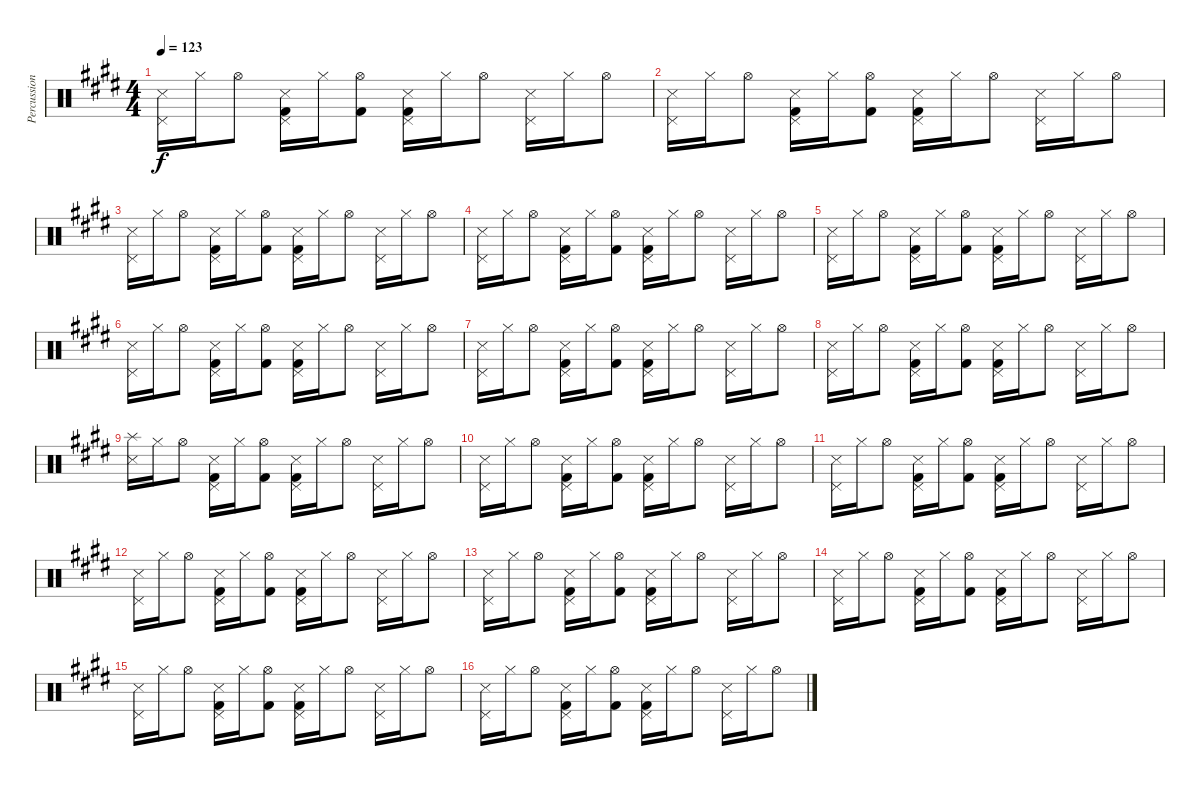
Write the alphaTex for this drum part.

\track ("Percussioni" "Percussion") {instrument percussion}
\staff {score}
\articulation defaults
\ts (4 4)
\tempo 123
\clef neutral
\ks e
("Pedal Hi-Hat (hit)" "Metronome (hit)").16{dy f} "Hi-Hat (closed)".16 "Hi-Hat (open)".8 ("Pedal Hi-Hat (hit)" "Metronome (hit)" "Kick (hit) 2").16 "Hi-Hat (closed)".16 ("Hi-Hat (open)" "Kick (hit) 2").8 ("Pedal Hi-Hat (hit)" "Metronome (hit)" "Kick (hit) 2").16 "Hi-Hat (closed)".16 "Hi-Hat (open)".8 ("Pedal Hi-Hat (hit)" "Metronome (hit)").16 "Hi-Hat (closed)".16 "Hi-Hat (open)".8 |
("Pedal Hi-Hat (hit)" "Metronome (hit)").16 "Hi-Hat (closed)".16 "Hi-Hat (open)".8 ("Pedal Hi-Hat (hit)" "Metronome (hit)" "Kick (hit) 2").16 "Hi-Hat (closed)".16 ("Hi-Hat (open)" "Kick (hit) 2").8 ("Pedal Hi-Hat (hit)" "Metronome (hit)" "Kick (hit) 2").16 "Hi-Hat (closed)".16 "Hi-Hat (open)".8 ("Pedal Hi-Hat (hit)" "Metronome (hit)").16 "Hi-Hat (closed)".16 "Hi-Hat (open)".8 |
("Pedal Hi-Hat (hit)" "Metronome (hit)").16 "Hi-Hat (closed)".16 "Hi-Hat (open)".8 ("Pedal Hi-Hat (hit)" "Metronome (hit)" "Kick (hit) 2").16 "Hi-Hat (closed)".16 ("Hi-Hat (open)" "Kick (hit) 2").8 ("Pedal Hi-Hat (hit)" "Metronome (hit)" "Kick (hit) 2").16 "Hi-Hat (closed)".16 "Hi-Hat (open)".8 ("Pedal Hi-Hat (hit)" "Metronome (hit)").16 "Hi-Hat (closed)".16 "Hi-Hat (open)".8 |
("Pedal Hi-Hat (hit)" "Metronome (hit)").16 "Hi-Hat (closed)".16 "Hi-Hat (open)".8 ("Pedal Hi-Hat (hit)" "Metronome (hit)" "Kick (hit) 2").16 "Hi-Hat (closed)".16 ("Hi-Hat (open)" "Kick (hit) 2").8 ("Pedal Hi-Hat (hit)" "Metronome (hit)" "Kick (hit) 2").16 "Hi-Hat (closed)".16 "Hi-Hat (open)".8 ("Pedal Hi-Hat (hit)" "Metronome (hit)").16 "Hi-Hat (closed)".16 "Hi-Hat (open)".8 |
("Pedal Hi-Hat (hit)" "Metronome (hit)").16 "Hi-Hat (closed)".16 "Hi-Hat (open)".8 ("Pedal Hi-Hat (hit)" "Metronome (hit)" "Kick (hit) 2").16 "Hi-Hat (closed)".16 ("Hi-Hat (open)" "Kick (hit) 2").8 ("Pedal Hi-Hat (hit)" "Metronome (hit)" "Kick (hit) 2").16 "Hi-Hat (closed)".16 "Hi-Hat (open)".8 ("Pedal Hi-Hat (hit)" "Metronome (hit)").16 "Hi-Hat (closed)".16 "Hi-Hat (open)".8 |
("Pedal Hi-Hat (hit)" "Metronome (hit)").16 "Hi-Hat (closed)".16 "Hi-Hat (open)".8 ("Pedal Hi-Hat (hit)" "Metronome (hit)" "Kick (hit) 2").16 "Hi-Hat (closed)".16 ("Hi-Hat (open)" "Kick (hit) 2").8 ("Pedal Hi-Hat (hit)" "Metronome (hit)" "Kick (hit) 2").16 "Hi-Hat (closed)".16 "Hi-Hat (open)".8 ("Pedal Hi-Hat (hit)" "Metronome (hit)").16 "Hi-Hat (closed)".16 "Hi-Hat (open)".8 |
("Pedal Hi-Hat (hit)" "Metronome (hit)").16 "Hi-Hat (closed)".16 "Hi-Hat (open)".8 ("Pedal Hi-Hat (hit)" "Metronome (hit)" "Kick (hit) 2").16 "Hi-Hat (closed)".16 ("Hi-Hat (open)" "Kick (hit) 2").8 ("Pedal Hi-Hat (hit)" "Metronome (hit)" "Kick (hit) 2").16 "Hi-Hat (closed)".16 "Hi-Hat (open)".8 ("Pedal Hi-Hat (hit)" "Metronome (hit)").16 "Hi-Hat (closed)".16 "Hi-Hat (open)".8 |
("Pedal Hi-Hat (hit)" "Metronome (hit)").16 "Hi-Hat (closed)".16 "Hi-Hat (open)".8 ("Pedal Hi-Hat (hit)" "Metronome (hit)" "Kick (hit) 2").16 "Hi-Hat (closed)".16 ("Hi-Hat (open)" "Kick (hit) 2").8 ("Pedal Hi-Hat (hit)" "Metronome (hit)" "Kick (hit) 2").16 "Hi-Hat (closed)".16 "Hi-Hat (open)".8 ("Pedal Hi-Hat (hit)" "Metronome (hit)").16 "Hi-Hat (closed)".16 "Hi-Hat (open)".8 |
("Splash (hit)" "Metronome (hit)").16 "Hi-Hat (closed)".16 "Hi-Hat (open)".8 ("Pedal Hi-Hat (hit)" "Metronome (hit)" "Kick (hit) 2").16 "Hi-Hat (closed)".16 ("Hi-Hat (open)" "Kick (hit) 2").8 ("Pedal Hi-Hat (hit)" "Metronome (hit)" "Kick (hit) 2").16 "Hi-Hat (closed)".16 "Hi-Hat (open)".8 ("Pedal Hi-Hat (hit)" "Metronome (hit)").16 "Hi-Hat (closed)".16 "Hi-Hat (open)".8 |
("Pedal Hi-Hat (hit)" "Metronome (hit)").16 "Hi-Hat (closed)".16 "Hi-Hat (open)".8 ("Pedal Hi-Hat (hit)" "Metronome (hit)" "Kick (hit) 2").16 "Hi-Hat (closed)".16 ("Hi-Hat (open)" "Kick (hit) 2").8 ("Pedal Hi-Hat (hit)" "Metronome (hit)" "Kick (hit) 2").16 "Hi-Hat (closed)".16 "Hi-Hat (open)".8 ("Pedal Hi-Hat (hit)" "Metronome (hit)").16 "Hi-Hat (closed)".16 "Hi-Hat (open)".8 |
("Pedal Hi-Hat (hit)" "Metronome (hit)").16 "Hi-Hat (closed)".16 "Hi-Hat (open)".8 ("Pedal Hi-Hat (hit)" "Metronome (hit)" "Kick (hit) 2").16 "Hi-Hat (closed)".16 ("Hi-Hat (open)" "Kick (hit) 2").8 ("Pedal Hi-Hat (hit)" "Metronome (hit)" "Kick (hit) 2").16 "Hi-Hat (closed)".16 "Hi-Hat (open)".8 ("Pedal Hi-Hat (hit)" "Metronome (hit)").16 "Hi-Hat (closed)".16 "Hi-Hat (open)".8 |
("Pedal Hi-Hat (hit)" "Metronome (hit)").16 "Hi-Hat (closed)".16 "Hi-Hat (open)".8 ("Pedal Hi-Hat (hit)" "Metronome (hit)" "Kick (hit) 2").16 "Hi-Hat (closed)".16 ("Hi-Hat (open)" "Kick (hit) 2").8 ("Pedal Hi-Hat (hit)" "Metronome (hit)" "Kick (hit) 2").16 "Hi-Hat (closed)".16 "Hi-Hat (open)".8 ("Pedal Hi-Hat (hit)" "Metronome (hit)").16 "Hi-Hat (closed)".16 "Hi-Hat (open)".8 |
("Pedal Hi-Hat (hit)" "Metronome (hit)").16 "Hi-Hat (closed)".16 "Hi-Hat (open)".8 ("Pedal Hi-Hat (hit)" "Metronome (hit)" "Kick (hit) 2").16 "Hi-Hat (closed)".16 ("Hi-Hat (open)" "Kick (hit) 2").8 ("Pedal Hi-Hat (hit)" "Metronome (hit)" "Kick (hit) 2").16 "Hi-Hat (closed)".16 "Hi-Hat (open)".8 ("Pedal Hi-Hat (hit)" "Metronome (hit)").16 "Hi-Hat (closed)".16 "Hi-Hat (open)".8 |
("Pedal Hi-Hat (hit)" "Metronome (hit)").16 "Hi-Hat (closed)".16 "Hi-Hat (open)".8 ("Pedal Hi-Hat (hit)" "Metronome (hit)" "Kick (hit) 2").16 "Hi-Hat (closed)".16 ("Hi-Hat (open)" "Kick (hit) 2").8 ("Pedal Hi-Hat (hit)" "Metronome (hit)" "Kick (hit) 2").16 "Hi-Hat (closed)".16 "Hi-Hat (open)".8 ("Pedal Hi-Hat (hit)" "Metronome (hit)").16 "Hi-Hat (closed)".16 "Hi-Hat (open)".8 |
("Pedal Hi-Hat (hit)" "Metronome (hit)").16 "Hi-Hat (closed)".16 "Hi-Hat (open)".8 ("Pedal Hi-Hat (hit)" "Metronome (hit)" "Kick (hit) 2").16 "Hi-Hat (closed)".16 ("Hi-Hat (open)" "Kick (hit) 2").8 ("Pedal Hi-Hat (hit)" "Metronome (hit)" "Kick (hit) 2").16 "Hi-Hat (closed)".16 "Hi-Hat (open)".8 ("Pedal Hi-Hat (hit)" "Metronome (hit)").16 "Hi-Hat (closed)".16 "Hi-Hat (open)".8 |
("Pedal Hi-Hat (hit)" "Metronome (hit)").16 "Hi-Hat (closed)".16 "Hi-Hat (open)".8 ("Pedal Hi-Hat (hit)" "Metronome (hit)" "Kick (hit) 2").16 "Hi-Hat (closed)".16 ("Hi-Hat (open)" "Kick (hit) 2").8 ("Pedal Hi-Hat (hit)" "Metronome (hit)" "Kick (hit) 2").16 "Hi-Hat (closed)".16 "Hi-Hat (open)".8 ("Pedal Hi-Hat (hit)" "Metronome (hit)").16 "Hi-Hat (closed)".16 "Hi-Hat (open)".8
